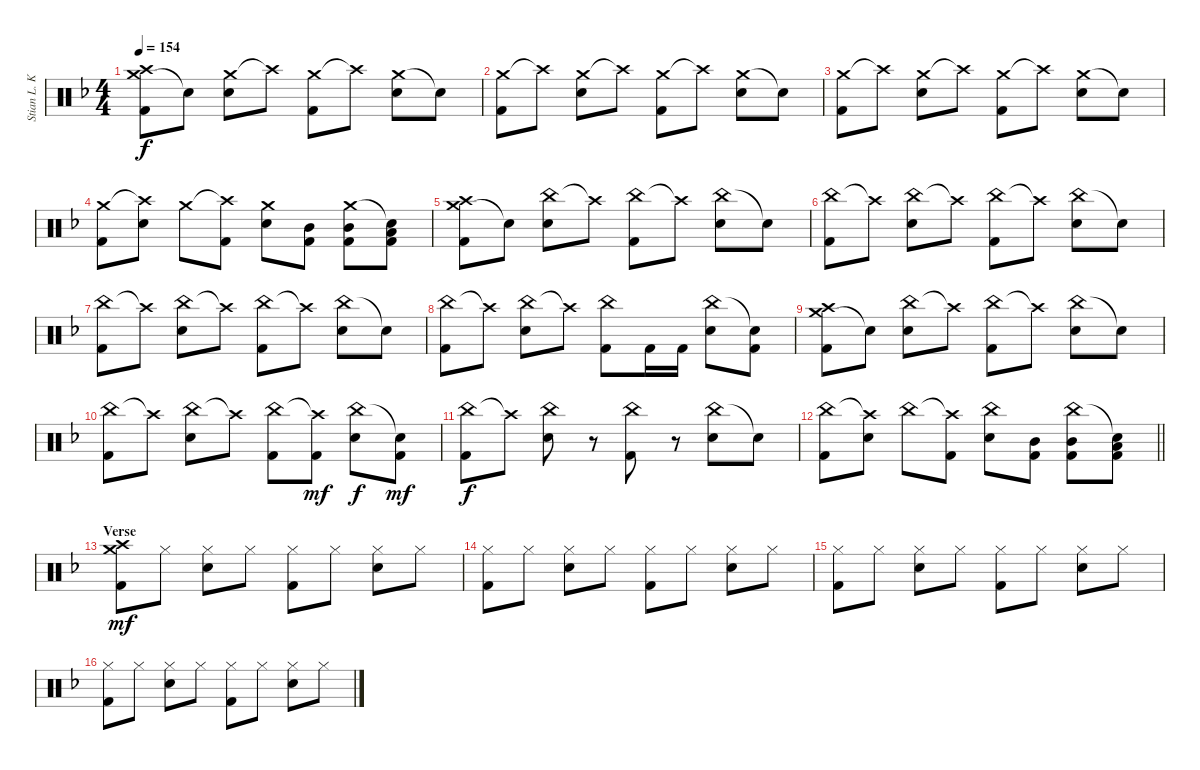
\track ("Stian L. Kristoffersen" "Stian L. K") {instrument percussion}
\staff {score}
\articulation defaults
\ts (4 4)
\tempo 154
\clef neutral
\ks f
("Crash medium (hit)" "Crash high (hit)" "Kick (hit) 2").8{dy f} "Snare (hit)"{t}.8 ("Crash medium (hit)" "Snare (hit) 2").8 "Crash high (hit)"{t}.8 ("Crash medium (hit)" "Kick (hit) 2").8 "Crash high (hit)"{t}.8 ("Crash medium (hit)" "Snare (hit) 2").8 "Snare (hit)"{t}.8 |
("Crash medium (hit)" "Kick (hit) 2").8 "Crash high (hit)"{t}.8 ("Crash medium (hit)" "Snare (hit) 2").8 "Crash high (hit)"{t}.8 ("Crash medium (hit)" "Kick (hit) 2").8 "Crash high (hit)"{t}.8 ("Crash medium (hit)" "Snare (hit) 2").8 "Snare (hit)"{t}.8 |
("Crash medium (hit)" "Kick (hit) 2").8 "Crash high (hit)"{t}.8 ("Crash medium (hit)" "Snare (hit) 2").8 "Crash high (hit)"{t}.8 ("Crash medium (hit)" "Kick (hit) 2").8 "Crash high (hit)"{t}.8 ("Crash medium (hit)" "Snare (hit) 2").8 "Snare (hit)"{t}.8 |
("Crash medium (hit)" "Kick (hit) 2").8 ("Crash high (hit)"{t} "Snare (hit) 2").8 "Crash medium (hit)".8 ("Crash high (hit)"{t} "Kick (hit) 2").8 ("Crash medium (hit)" "Snare (hit) 2").8 ("Mid Tom (hit)" "Kick (hit) 2").8 ("Crash medium (hit)" "Mid Tom (hit)" "Kick (hit) 2").8 ("Snare (hit)"{t} "Low Tom (hit)" "Kick (hit) 2").8 |
("Crash medium (hit)" "Crash high (hit)" "Kick (hit) 2").8 "Snare (hit)"{t}.8 ("China (hit)" "Snare (hit) 2").8 "Crash high (hit)"{t}.8 ("China (hit)" "Kick (hit) 2").8 "Crash high (hit)"{t}.8 ("China (hit)" "Snare (hit) 2").8 "Snare (hit)"{t}.8 |
("China (hit)" "Kick (hit) 2").8 "Crash high (hit)"{t}.8 ("China (hit)" "Snare (hit) 2").8 "Crash high (hit)"{t}.8 ("China (hit)" "Kick (hit) 2").8 "Crash high (hit)"{t}.8 ("China (hit)" "Snare (hit) 2").8 "Snare (hit)"{t}.8 |
("China (hit)" "Kick (hit) 2").8 "Crash high (hit)"{t}.8 ("China (hit)" "Snare (hit) 2").8 "Crash high (hit)"{t}.8 ("China (hit)" "Kick (hit) 2").8 "Crash high (hit)"{t}.8 ("China (hit)" "Snare (hit) 2").8 "Snare (hit)"{t}.8 |
("China (hit)" "Kick (hit) 2").8 "Crash high (hit)"{t}.8 ("China (hit)" "Snare (hit) 2").8 "Crash high (hit)"{t}.8 ("China (hit)" "Kick (hit) 2").8 "Kick (hit) 2".16 "Kick (hit) 2".16 ("China (hit)" "Snare (hit) 2").8 ("Snare (hit)"{t} "Kick (hit) 2").8 |
("Crash medium (hit)" "Crash high (hit)" "Kick (hit) 2").8 "Snare (hit)"{t}.8 ("China (hit)" "Snare (hit) 2").8 "Crash high (hit)"{t}.8 ("China (hit)" "Kick (hit) 2").8 "Crash high (hit)"{t}.8 ("China (hit)" "Snare (hit) 2").8 "Snare (hit)"{t}.8 |
("China (hit)" "Kick (hit) 2").8 "Crash high (hit)"{t}.8 ("China (hit)" "Snare (hit) 2").8 "Crash high (hit)"{t}.8 ("China (hit)" "Kick (hit) 2").8 ("Crash high (hit)"{t} "Kick (hit) 2").8{dy mf} ("China (hit)" "Snare (hit) 2").8{dy f} ("Snare (hit)"{t} "Kick (hit) 2").8{dy mf} |
("China (hit)" "Kick (hit) 2").8{dy f} "Crash high (hit)"{t}.8 ("China (hit)" "Snare (hit) 2").8 r.8 ("China (hit)" "Kick (hit) 2").8 r.8 ("China (hit)" "Snare (hit) 2").8 "Snare (hit)"{t}.8 |
\barLineRight lightlight
("China (hit)" "Kick (hit) 2").8 ("Crash high (hit)"{t} "Snare (hit) 2").8 "China (hit)".8 ("Crash high (hit)"{t} "Kick (hit) 2").8 ("China (hit)" "Snare (hit) 2").8 ("Mid Tom (hit)" "Kick (hit) 2").8 ("China (hit)" "Mid Tom (hit)" "Kick (hit) 2").8 ("Snare (hit)"{t} "Low Tom (hit)" "Kick (hit) 2").8 |
\section ("" "Verse")
("Crash medium (hit)" "Crash high (hit)" "Kick (hit) 2").8{dy mf} "Hi-Hat (closed)".8 ("Hi-Hat (closed)" "Snare (hit) 2").8 "Hi-Hat (closed)".8 ("Hi-Hat (closed)" "Kick (hit) 2").8 "Hi-Hat (closed)".8 ("Hi-Hat (closed)" "Snare (hit) 2").8 "Hi-Hat (closed)".8 |
("Hi-Hat (closed)" "Kick (hit) 2").8 "Hi-Hat (closed)".8 ("Hi-Hat (closed)" "Snare (hit) 2").8 "Hi-Hat (closed)".8 ("Hi-Hat (closed)" "Kick (hit) 2").8 "Hi-Hat (closed)".8 ("Hi-Hat (closed)" "Snare (hit) 2").8 "Hi-Hat (closed)".8 |
("Hi-Hat (closed)" "Kick (hit) 2").8 "Hi-Hat (closed)".8 ("Hi-Hat (closed)" "Snare (hit) 2").8 "Hi-Hat (closed)".8 ("Hi-Hat (closed)" "Kick (hit) 2").8 "Hi-Hat (closed)".8 ("Hi-Hat (closed)" "Snare (hit) 2").8 "Hi-Hat (closed)".8 |
("Hi-Hat (closed)" "Kick (hit) 2").8 "Hi-Hat (closed)".8 ("Hi-Hat (closed)" "Snare (hit) 2").8 "Hi-Hat (closed)".8 ("Hi-Hat (closed)" "Kick (hit) 2").8 "Hi-Hat (closed)".8 ("Hi-Hat (closed)" "Snare (hit) 2").8 "Hi-Hat (closed)".8
